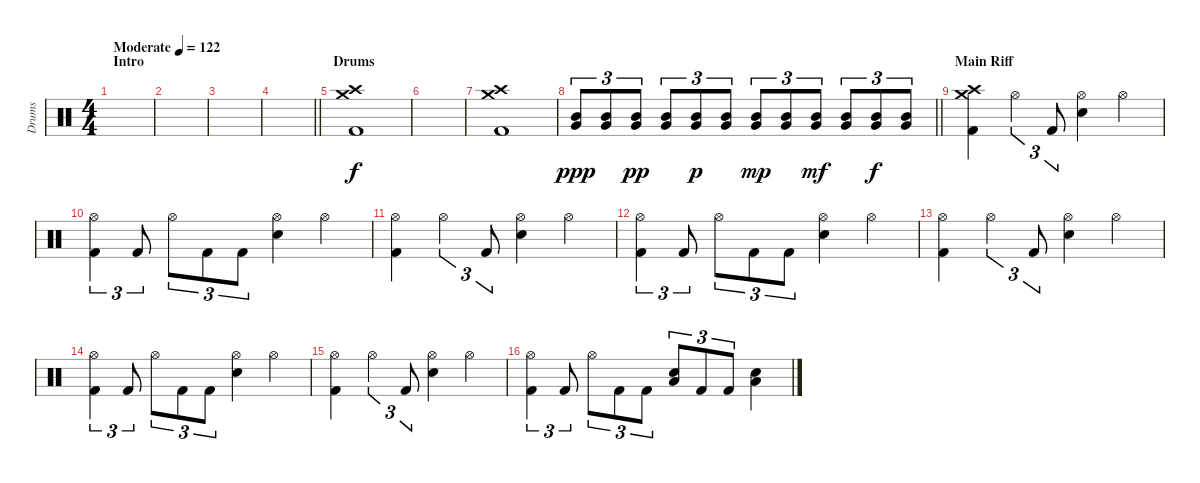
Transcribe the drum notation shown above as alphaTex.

\track ("Drums" "Drums") {instrument percussion}
\staff {score}
\articulation defaults
\ts (4 4)
\section ("" "Intro")
\tempo (122 "Moderate")
\clef neutral
\ks c
|
|
|
\barLineRight lightlight
|
\section ("" "Drums")
("Crash high (hit)" "Crash medium (hit)" "Kick (hit) 2").1 |
|
("Crash high (hit)" "Crash medium (hit)" "Kick (hit) 2").1 |
\barLineRight lightlight
("Mid Tom (hit)" "Very Low Tom (hit)").8{tu (3 2) dy ppp} ("Mid Tom (hit)" "Very Low Tom (hit)").8{tu (3 2)} ("Mid Tom (hit)" "Very Low Tom (hit)").8{tu (3 2) dy pp} ("Mid Tom (hit)" "Very Low Tom (hit)").8{tu (3 2)} ("Mid Tom (hit)" "Very Low Tom (hit)").8{tu (3 2) dy p} ("Mid Tom (hit)" "Very Low Tom (hit)").8{tu (3 2)} ("Mid Tom (hit)" "Very Low Tom (hit)").8{tu (3 2) dy mp} ("Mid Tom (hit)" "Very Low Tom (hit)").8{tu (3 2)} ("Mid Tom (hit)" "Very Low Tom (hit)").8{tu (3 2) dy mf} ("Mid Tom (hit)" "Very Low Tom (hit)").8{tu (3 2)} ("Mid Tom (hit)" "Very Low Tom (hit)").8{tu (3 2) dy f} ("Mid Tom (hit)" "Very Low Tom (hit)").8{tu (3 2)} |
\section ("" "Main Riff")
("Crash high (hit)" "Crash medium (hit)" "Kick (hit) 2").4 "Hi-Hat (open)".4{tu (3 2)} "Kick (hit) 2".8{tu (3 2)} ("Hi-Hat (open)" "Electric Snare (hit)").4 "Hi-Hat (open)".4 |
("Hi-Hat (open)" "Kick (hit) 2").4{tu (3 2)} "Kick (hit) 2".8{tu (3 2)} "Hi-Hat (open)".8{tu (3 2)} "Kick (hit) 2".8{tu (3 2)} "Kick (hit) 2".8{tu (3 2)} ("Hi-Hat (open)" "Electric Snare (hit)").4 "Hi-Hat (open)".4 |
("Hi-Hat (open)" "Kick (hit) 2").4 "Hi-Hat (open)".4{tu (3 2)} "Kick (hit) 2".8{tu (3 2)} ("Hi-Hat (open)" "Electric Snare (hit)").4 "Hi-Hat (open)".4 |
("Hi-Hat (open)" "Kick (hit) 2").4{tu (3 2)} "Kick (hit) 2".8{tu (3 2)} "Hi-Hat (open)".8{tu (3 2)} "Kick (hit) 2".8{tu (3 2)} "Kick (hit) 2".8{tu (3 2)} ("Hi-Hat (open)" "Electric Snare (hit)").4 "Hi-Hat (open)".4 |
("Hi-Hat (open)" "Kick (hit) 2").4 "Hi-Hat (open)".4{tu (3 2)} "Kick (hit) 2".8{tu (3 2)} ("Hi-Hat (open)" "Electric Snare (hit)").4 "Hi-Hat (open)".4 |
("Hi-Hat (open)" "Kick (hit) 2").4{tu (3 2)} "Kick (hit) 2".8{tu (3 2)} "Hi-Hat (open)".8{tu (3 2)} "Kick (hit) 2".8{tu (3 2)} "Kick (hit) 2".8{tu (3 2)} ("Hi-Hat (open)" "Electric Snare (hit)").4 "Hi-Hat (open)".4 |
("Hi-Hat (open)" "Kick (hit) 2").4 "Hi-Hat (open)".4{tu (3 2)} "Kick (hit) 2".8{tu (3 2)} ("Hi-Hat (open)" "Electric Snare (hit)").4 "Hi-Hat (open)".4 |
("Hi-Hat (open)" "Kick (hit) 2").4{tu (3 2)} "Kick (hit) 2".8{tu (3 2)} "Hi-Hat (open)".8{tu (3 2)} "Kick (hit) 2".8{tu (3 2)} "Kick (hit) 2".8{tu (3 2)} ("Low Floor Tom (hit)" "Electric Snare (hit)").8{tu (3 2)} "Kick (hit) 2".8{tu (3 2)} "Kick (hit) 2".8{tu (3 2)} ("Low Floor Tom (hit)" "Electric Snare (hit)").4
